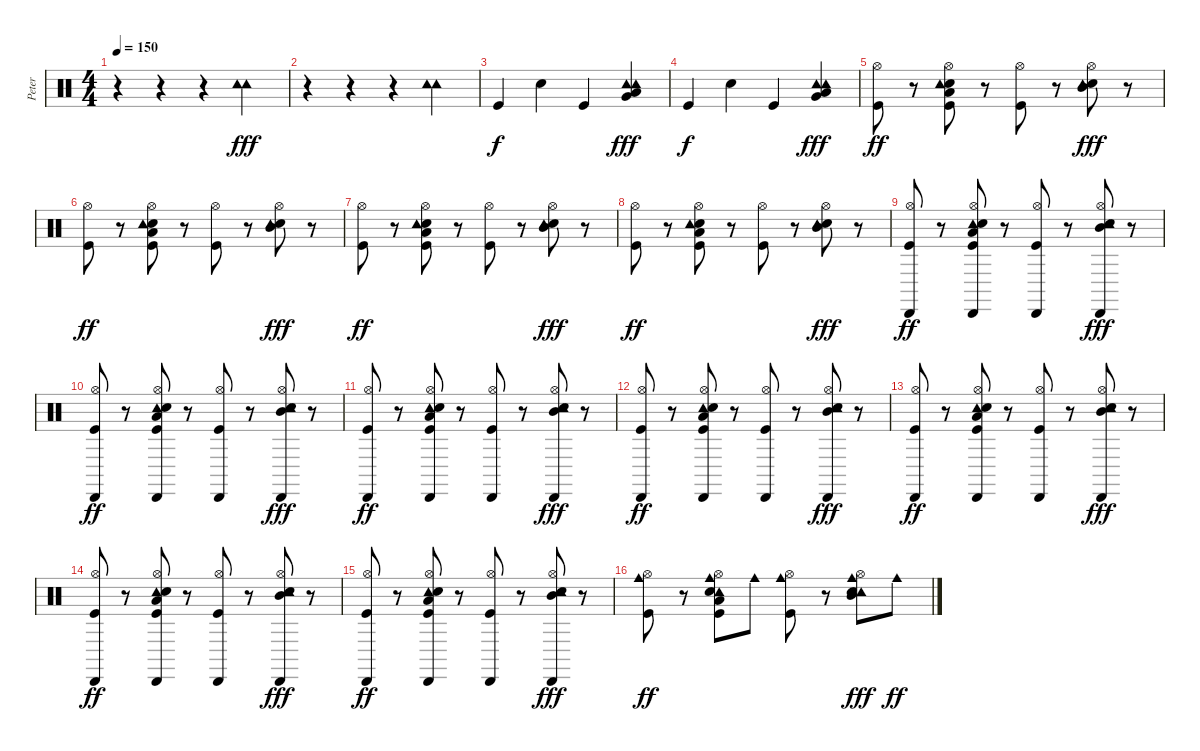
\track ("Peter" "Peter") {instrument percussion}
\staff {score}
\articulation defaults
\ts (4 4)
\tempo 150
\clef neutral
\ks c
r.4{dy fff} r.4 r.4 ("Tambourine (hit)" "Tambourine (hit)").4 |
r.4 r.4 r.4 ("Tambourine (hit)" "Tambourine (hit)").4 |
"Kick (hit)".4{dy f} "Snare (hit) 2".4 "Kick (hit)".4 ("Tambourine (hit)" "Tambourine (hit)" "Low Tom (hit)" "Very Low Tom (hit)").4{dy fff} |
"Kick (hit)".4{dy f} "Snare (hit) 2".4 "Kick (hit)".4 ("Tambourine (hit)" "Tambourine (hit)" "Low Tom (hit)" "Very Low Tom (hit)").4{dy fff} |
("Hi-Hat (open)" "Kick (hit)").8{dy ff} r.8 ("Hand Clap (hit)" "Tambourine (hit)" "Hi-Hat (open)" "Low Floor Tom (hit)" "Kick (hit)").8 r.8 ("Hi-Hat (open)" "Kick (hit)").8 r.8 ("Hand Clap (hit)" "Tambourine (hit)" "Hi-Hat (open)" "Mid Tom (hit)").8{dy fff} r.8 |
("Hi-Hat (open)" "Kick (hit)").8{dy ff} r.8 ("Hand Clap (hit)" "Tambourine (hit)" "Hi-Hat (open)" "Low Floor Tom (hit)" "Kick (hit)").8 r.8 ("Hi-Hat (open)" "Kick (hit)").8 r.8 ("Hand Clap (hit)" "Tambourine (hit)" "Hi-Hat (open)" "Mid Tom (hit)").8{dy fff} r.8 |
("Hi-Hat (open)" "Kick (hit)").8{dy ff} r.8 ("Hand Clap (hit)" "Tambourine (hit)" "Hi-Hat (open)" "Low Floor Tom (hit)" "Kick (hit)").8 r.8 ("Hi-Hat (open)" "Kick (hit)").8 r.8 ("Hand Clap (hit)" "Tambourine (hit)" "Hi-Hat (open)" "Mid Tom (hit)").8{dy fff} r.8 |
("Hi-Hat (open)" "Kick (hit)").8{dy ff} r.8 ("Hand Clap (hit)" "Tambourine (hit)" "Hi-Hat (open)" "Low Floor Tom (hit)" "Kick (hit)").8 r.8 ("Hi-Hat (open)" "Kick (hit)").8 r.8 ("Hand Clap (hit)" "Tambourine (hit)" "Hi-Hat (open)" "Mid Tom (hit)").8{dy fff} r.8 |
("Cabasa (hit)" "Hi-Hat (open)" "Kick (hit)").8{dy ff} r.8 ("Cabasa (hit)" "Tambourine (hit)" "Hi-Hat (open)" "Hand Clap (hit)" "Low Floor Tom (hit)" "Kick (hit)").8 r.8 ("Cabasa (hit)" "Hi-Hat (open)" "Kick (hit)").8 r.8 ("Cabasa (hit)" "Tambourine (hit)" "Hi-Hat (open)" "Mid Tom (hit)" "Hand Clap (hit)").8{dy fff} r.8 |
("Cabasa (hit)" "Hi-Hat (open)" "Kick (hit)").8{dy ff} r.8 ("Cabasa (hit)" "Tambourine (hit)" "Hi-Hat (open)" "Hand Clap (hit)" "Low Floor Tom (hit)" "Kick (hit)").8 r.8 ("Cabasa (hit)" "Hi-Hat (open)" "Kick (hit)").8 r.8 ("Cabasa (hit)" "Tambourine (hit)" "Hi-Hat (open)" "Mid Tom (hit)" "Hand Clap (hit)").8{dy fff} r.8 |
("Cabasa (hit)" "Hi-Hat (open)" "Kick (hit)").8{dy ff} r.8 ("Cabasa (hit)" "Tambourine (hit)" "Hi-Hat (open)" "Hand Clap (hit)" "Low Floor Tom (hit)" "Kick (hit)").8 r.8 ("Cabasa (hit)" "Hi-Hat (open)" "Kick (hit)").8 r.8 ("Cabasa (hit)" "Tambourine (hit)" "Hi-Hat (open)" "Mid Tom (hit)" "Hand Clap (hit)").8{dy fff} r.8 |
("Cabasa (hit)" "Hi-Hat (open)" "Kick (hit)").8{dy ff} r.8 ("Cabasa (hit)" "Tambourine (hit)" "Hi-Hat (open)" "Hand Clap (hit)" "Low Floor Tom (hit)" "Kick (hit)").8 r.8 ("Cabasa (hit)" "Hi-Hat (open)" "Kick (hit)").8 r.8 ("Cabasa (hit)" "Tambourine (hit)" "Hi-Hat (open)" "Mid Tom (hit)" "Hand Clap (hit)").8{dy fff} r.8 |
("Cabasa (hit)" "Hi-Hat (open)" "Kick (hit)").8{dy ff} r.8 ("Cabasa (hit)" "Tambourine (hit)" "Hi-Hat (open)" "Hand Clap (hit)" "Low Floor Tom (hit)" "Kick (hit)").8 r.8 ("Cabasa (hit)" "Hi-Hat (open)" "Kick (hit)").8 r.8 ("Cabasa (hit)" "Tambourine (hit)" "Hi-Hat (open)" "Mid Tom (hit)" "Hand Clap (hit)").8{dy fff} r.8 |
("Cabasa (hit)" "Hi-Hat (open)" "Kick (hit)").8{dy ff} r.8 ("Cabasa (hit)" "Tambourine (hit)" "Hi-Hat (open)" "Hand Clap (hit)" "Low Floor Tom (hit)" "Kick (hit)").8 r.8 ("Cabasa (hit)" "Hi-Hat (open)" "Kick (hit)").8 r.8 ("Cabasa (hit)" "Tambourine (hit)" "Hi-Hat (open)" "Mid Tom (hit)" "Hand Clap (hit)").8{dy fff} r.8 |
("Cabasa (hit)" "Hi-Hat (open)" "Kick (hit)").8{dy ff} r.8 ("Cabasa (hit)" "Tambourine (hit)" "Hi-Hat (open)" "Hand Clap (hit)" "Low Floor Tom (hit)" "Kick (hit)").8 r.8 ("Cabasa (hit)" "Hi-Hat (open)" "Kick (hit)").8 r.8 ("Cabasa (hit)" "Tambourine (hit)" "Hi-Hat (open)" "Mid Tom (hit)" "Hand Clap (hit)").8{dy fff} r.8 |
("Cowbell medium (hit)" "Hi-Hat (open)" "Kick (hit)").8{dy ff} r.8 ("Cowbell medium (hit)" "Tambourine (hit)" "Hi-Hat (open)" "Hand Clap (hit)" "Low Floor Tom (hit)" "Kick (hit)").8 "Cowbell medium (hit)".8 ("Cowbell medium (hit)" "Hi-Hat (open)" "Kick (hit)").8 r.8 ("Cowbell medium (hit)" "Tambourine (hit)" "Hi-Hat (open)" "Mid Tom (hit)" "Hand Clap (hit)").8{dy fff} "Cowbell medium (hit)".8{dy ff}
